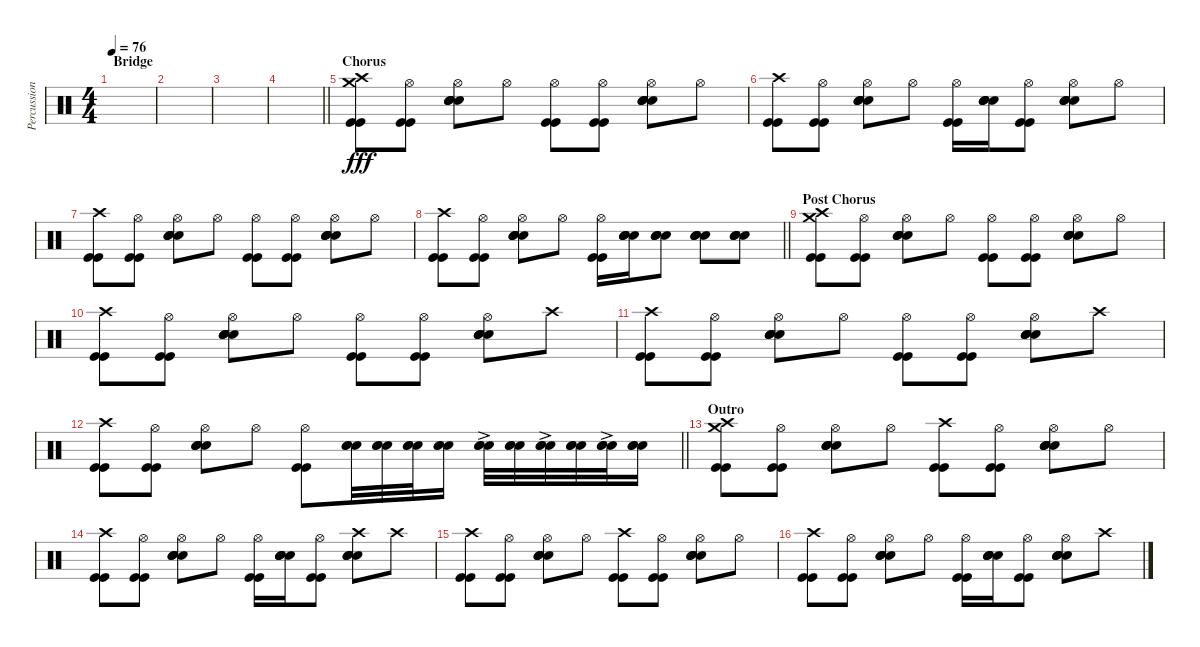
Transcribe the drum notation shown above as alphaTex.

\track ("Percussion" "Percussion") {instrument percussion}
\staff {score}
\articulation defaults
\ts (4 4)
\section ("" "Bridge")
\tempo 76
\clef neutral
\ks c
|
|
|
\barLineRight lightlight
|
\section ("" "Chorus")
("Crash high (hit)" "Crash medium (hit)" "Kick (hit)" "Kick (hit)").8{dy fff} ("Hi-Hat (open)" "Kick (hit)" "Kick (hit)").8 ("Hi-Hat (open)" "Electric Snare (hit)" "Snare (hit) 2" "Snare (hit) 2" "Electric Snare (hit)").8 "Hi-Hat (open)".8 ("Hi-Hat (open)" "Kick (hit)" "Kick (hit)").8 ("Hi-Hat (open)" "Kick (hit)" "Kick (hit)").8 ("Hi-Hat (open)" "Electric Snare (hit)" "Snare (hit) 2" "Snare (hit) 2" "Electric Snare (hit)").8 "Hi-Hat (open)".8 |
("Crash high (hit)" "Kick (hit)" "Kick (hit)").8 ("Hi-Hat (open)" "Kick (hit)" "Kick (hit)").8 ("Hi-Hat (open)" "Electric Snare (hit)" "Snare (hit) 2" "Snare (hit) 2" "Electric Snare (hit)").8 "Hi-Hat (open)".8 ("Hi-Hat (open)" "Kick (hit)" "Kick (hit)").16 ("Electric Snare (hit)" "Snare (hit) 2" "Snare (hit) 2" "Electric Snare (hit)").16 ("Hi-Hat (open)" "Kick (hit)" "Kick (hit)").8 ("Hi-Hat (open)" "Electric Snare (hit)" "Snare (hit) 2" "Snare (hit) 2" "Electric Snare (hit)").8 "Hi-Hat (open)".8 |
("Crash high (hit)" "Kick (hit)" "Kick (hit)").8 ("Hi-Hat (open)" "Kick (hit)" "Kick (hit)").8 ("Hi-Hat (open)" "Electric Snare (hit)" "Snare (hit) 2" "Snare (hit) 2" "Electric Snare (hit)").8 "Hi-Hat (open)".8 ("Hi-Hat (open)" "Kick (hit)" "Kick (hit)").8 ("Hi-Hat (open)" "Kick (hit)" "Kick (hit)").8 ("Hi-Hat (open)" "Electric Snare (hit)" "Snare (hit) 2" "Snare (hit) 2" "Electric Snare (hit)").8 "Hi-Hat (open)".8 |
\barLineRight lightlight
("Crash high (hit)" "Kick (hit)" "Kick (hit)").8 ("Hi-Hat (open)" "Kick (hit)" "Kick (hit)").8 ("Hi-Hat (open)" "Electric Snare (hit)" "Snare (hit) 2" "Snare (hit) 2" "Electric Snare (hit)").8 "Hi-Hat (open)".8 ("Hi-Hat (open)" "Kick (hit)" "Kick (hit)").16 ("Electric Snare (hit)" "Snare (hit) 2" "Snare (hit) 2" "Electric Snare (hit)").16 ("Electric Snare (hit)" "Snare (hit) 2" "Snare (hit) 2" "Electric Snare (hit)").8 ("Electric Snare (hit)" "Snare (hit) 2" "Snare (hit) 2" "Electric Snare (hit)").8 ("Electric Snare (hit)" "Snare (hit) 2" "Snare (hit) 2" "Electric Snare (hit)").8 |
\section ("" "Post Chorus")
("Crash high (hit)" "Crash medium (hit)" "Kick (hit)" "Kick (hit)").8 ("Hi-Hat (open)" "Kick (hit)" "Kick (hit)").8 ("Hi-Hat (open)" "Electric Snare (hit)" "Snare (hit) 2" "Snare (hit) 2" "Electric Snare (hit)").8 "Hi-Hat (open)".8 ("Hi-Hat (open)" "Kick (hit)" "Kick (hit)").8 ("Hi-Hat (open)" "Kick (hit)" "Kick (hit)").8 ("Hi-Hat (open)" "Electric Snare (hit)" "Snare (hit) 2" "Snare (hit) 2" "Electric Snare (hit)").8 "Hi-Hat (open)".8 |
("Crash high (hit)" "Kick (hit)" "Kick (hit)").8 ("Hi-Hat (open)" "Kick (hit)" "Kick (hit)").8 ("Hi-Hat (open)" "Electric Snare (hit)" "Snare (hit) 2" "Snare (hit) 2" "Electric Snare (hit)").8 "Hi-Hat (open)".8 ("Hi-Hat (open)" "Kick (hit)" "Kick (hit)").8 ("Hi-Hat (open)" "Kick (hit)" "Kick (hit)").8 ("Hi-Hat (open)" "Electric Snare (hit)" "Snare (hit) 2" "Snare (hit) 2" "Electric Snare (hit)").8 "Crash high (hit)".8 |
("Crash high (hit)" "Kick (hit)" "Kick (hit)").8 ("Hi-Hat (open)" "Kick (hit)" "Kick (hit)").8 ("Hi-Hat (open)" "Electric Snare (hit)" "Snare (hit) 2" "Snare (hit) 2" "Electric Snare (hit)").8 "Hi-Hat (open)".8 ("Hi-Hat (open)" "Kick (hit)" "Kick (hit)").8 ("Hi-Hat (open)" "Kick (hit)" "Kick (hit)").8 ("Hi-Hat (open)" "Electric Snare (hit)" "Snare (hit) 2" "Snare (hit) 2" "Electric Snare (hit)").8 "Crash high (hit)".8 |
\barLineRight lightlight
("Crash high (hit)" "Kick (hit)" "Kick (hit)").8 ("Hi-Hat (open)" "Kick (hit)" "Kick (hit)").8 ("Hi-Hat (open)" "Electric Snare (hit)" "Snare (hit) 2" "Snare (hit) 2" "Electric Snare (hit)").8 "Hi-Hat (open)".8 ("Hi-Hat (open)" "Kick (hit)" "Kick (hit)").8 ("Electric Snare (hit)" "Electric Snare (hit)" "Snare (hit) 2").32 ("Electric Snare (hit)" "Electric Snare (hit)" "Snare (hit) 2").32 ("Electric Snare (hit)" "Electric Snare (hit)" "Snare (hit) 2").32 ("Electric Snare (hit)" "Electric Snare (hit)" "Snare (hit) 2").16 ("Electric Snare (hit)" "Electric Snare (hit)" "Snare (hit) 2"{ac}).32 ("Electric Snare (hit)" "Electric Snare (hit)" "Snare (hit) 2").32 ("Electric Snare (hit)" "Electric Snare (hit)" "Snare (hit) 2"{ac}).32 ("Electric Snare (hit)" "Electric Snare (hit)" "Snare (hit) 2").32 ("Electric Snare (hit)" "Electric Snare (hit)" "Snare (hit) 2"{ac}).32 ("Electric Snare (hit)" "Electric Snare (hit)" "Snare (hit) 2").16 |
\section ("" "Outro")
("Crash high (hit)" "Crash medium (hit)" "Kick (hit)" "Kick (hit)").8 ("Hi-Hat (open)" "Kick (hit)" "Kick (hit)").8 ("Hi-Hat (open)" "Electric Snare (hit)" "Snare (hit) 2" "Snare (hit) 2" "Electric Snare (hit)").8 "Hi-Hat (open)".8 ("Crash high (hit)" "Kick (hit)" "Kick (hit)").8 ("Hi-Hat (open)" "Kick (hit)" "Kick (hit)").8 ("Hi-Hat (open)" "Electric Snare (hit)" "Snare (hit) 2" "Snare (hit) 2" "Electric Snare (hit)").8 "Hi-Hat (open)".8 |
("Crash high (hit)" "Kick (hit)" "Kick (hit)").8 ("Hi-Hat (open)" "Kick (hit)" "Kick (hit)").8 ("Hi-Hat (open)" "Electric Snare (hit)" "Snare (hit) 2" "Snare (hit) 2" "Electric Snare (hit)").8 "Hi-Hat (open)".8 ("Hi-Hat (open)" "Kick (hit)" "Kick (hit)").16 ("Electric Snare (hit)" "Snare (hit) 2" "Snare (hit) 2" "Electric Snare (hit)").16 ("Hi-Hat (open)" "Kick (hit)" "Kick (hit)").8 ("Crash high (hit)" "Electric Snare (hit)" "Snare (hit) 2" "Snare (hit) 2" "Electric Snare (hit)").8 "Crash high (hit)".8 |
("Crash high (hit)" "Kick (hit)" "Kick (hit)").8 ("Hi-Hat (open)" "Kick (hit)" "Kick (hit)").8 ("Hi-Hat (open)" "Electric Snare (hit)" "Snare (hit) 2" "Snare (hit) 2" "Electric Snare (hit)").8 "Hi-Hat (open)".8 ("Crash high (hit)" "Kick (hit)" "Kick (hit)").8 ("Hi-Hat (open)" "Kick (hit)" "Kick (hit)").8 ("Hi-Hat (open)" "Electric Snare (hit)" "Snare (hit) 2" "Snare (hit) 2" "Electric Snare (hit)").8 "Hi-Hat (open)".8 |
("Crash high (hit)" "Kick (hit)" "Kick (hit)").8 ("Hi-Hat (open)" "Kick (hit)" "Kick (hit)").8 ("Hi-Hat (open)" "Electric Snare (hit)" "Snare (hit) 2" "Snare (hit) 2" "Electric Snare (hit)").8 "Hi-Hat (open)".8 ("Hi-Hat (open)" "Kick (hit)" "Kick (hit)").16 ("Electric Snare (hit)" "Snare (hit) 2" "Snare (hit) 2" "Electric Snare (hit)").16 ("Hi-Hat (open)" "Kick (hit)" "Kick (hit)").8 ("Hi-Hat (open)" "Electric Snare (hit)" "Snare (hit) 2" "Snare (hit) 2" "Electric Snare (hit)").8 "Crash high (hit)".8
